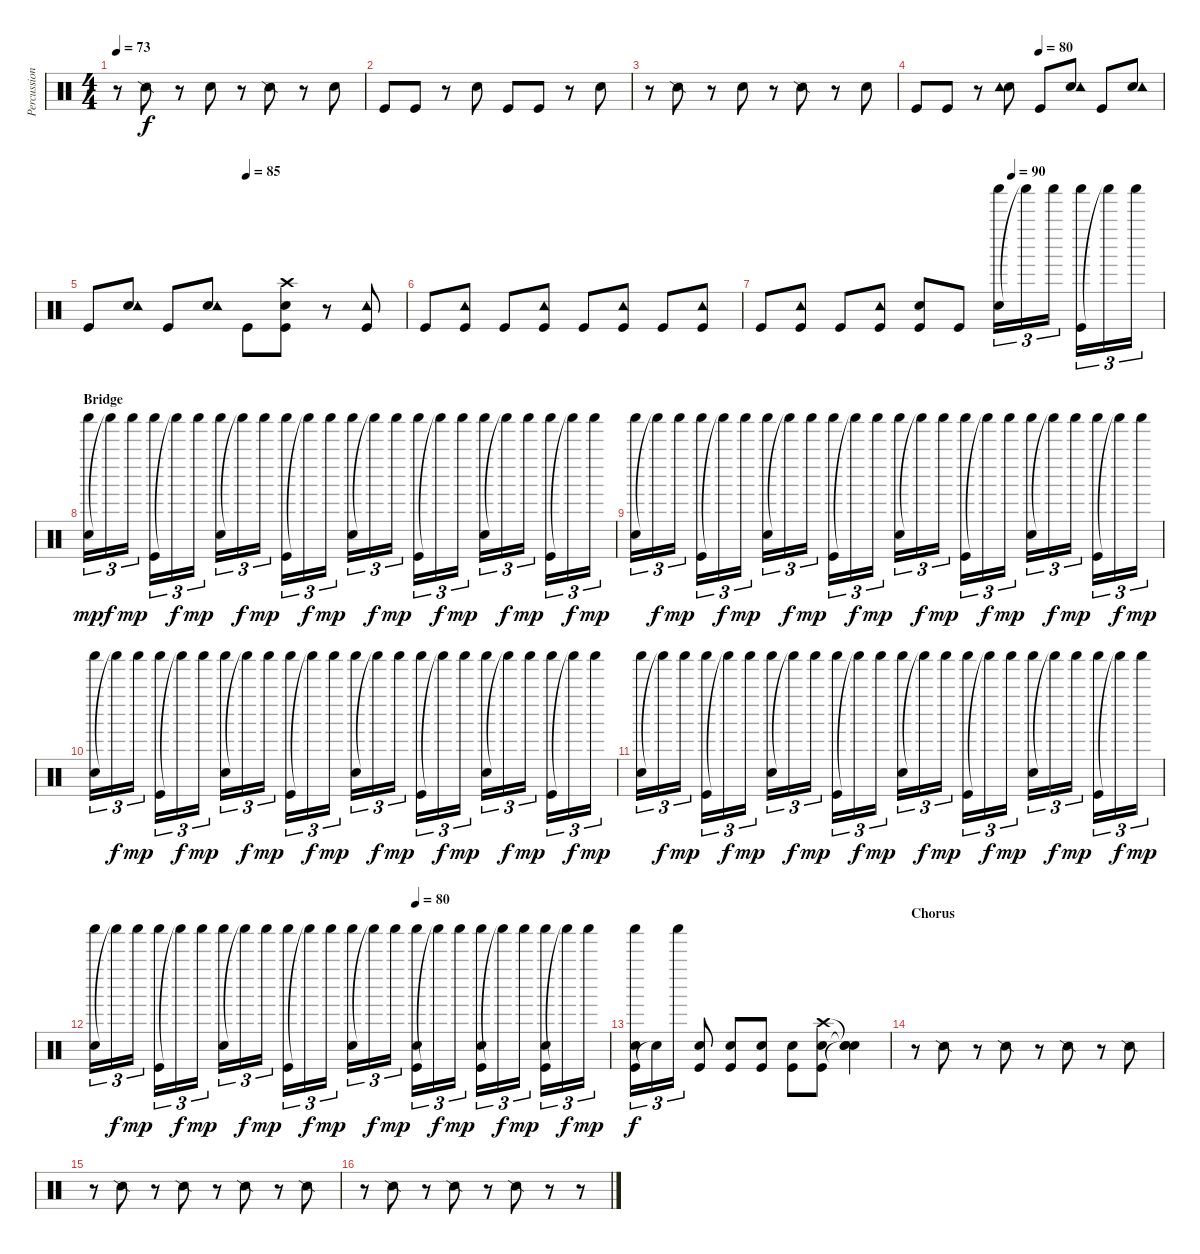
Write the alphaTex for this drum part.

\track ("Percussion" "Percussion") {instrument percussion}
\staff {score}
\articulation defaults
\ts (4 4)
\tempo 73
\clef neutral
\ks c
r.8{dy f} "Snare (side stick) 2".8 r.8 "Snare (hit) 2".8 r.8 "Snare (side stick) 2".8 r.8 "Snare (hit) 2".8 |
"Kick (hit)".8 "Kick (hit)".8 r.8 "Snare (hit) 2".8 "Kick (hit)".8 "Kick (hit)".8 r.8 "Snare (hit) 2".8 |
r.8 "Snare (side stick) 2".8 r.8 "Snare (hit) 2".8 r.8 "Snare (side stick) 2".8 r.8 "Snare (hit) 2".8 |
\tempo (80 0.5)
"Kick (hit)".8 "Kick (hit)".8 r.8 ("Snare (hit) 2" "Tambourine (hit)").8 "Kick (hit)".8 ("Snare (hit) 2" "Tambourine (hit)").8 "Kick (hit)".8 ("Snare (hit) 2" "Tambourine (hit)").8 |
\tempo (85 0.5)
"Kick (hit)".8 ("Snare (hit) 2" "Tambourine (hit)").8 "Kick (hit)".8 ("Snare (hit) 2" "Tambourine (hit)").8 "Kick (hit)".8 ("Kick (hit)" "Snare (hit) 2" "Crash high (hit)").8 r.8 ("Kick (hit)" "Tambourine (hit)").8 |
"Kick (hit)".8 ("Kick (hit)" "Tambourine (hit)").8 "Kick (hit)".8 ("Kick (hit)" "Tambourine (hit)").8 "Kick (hit)".8 ("Kick (hit)" "Tambourine (hit)").8 "Kick (hit)".8 ("Kick (hit)" "Tambourine (hit)").8 |
\tempo (90 0.625)
"Kick (hit)".8 ("Kick (hit)" "Tambourine (hit)").8 "Kick (hit)".8 ("Kick (hit)" "Tambourine (hit)").8 ("Kick (hit)" "Snare (hit) 2").8 "Kick (hit)".8 ("Snare (hit) 2" "Shaker (hit)").16{tu (3 2)} "Shaker (hit)"{t}.16{tu (3 2)} "Shaker (hit)".16{tu (3 2)} ("Kick (hit)" "Shaker (hit)").16{tu (3 2)} "Shaker (hit)"{t}.16{tu (3 2)} "Shaker (hit)".16{tu (3 2)} |
\section ("" "Bridge")
("Snare (hit) 2" "Shaker (hit)").16{tu (3 2) dy mp} "Shaker (hit)"{t}.16{tu (3 2) dy f} "Shaker (hit)".16{tu (3 2) dy mp} ("Kick (hit)" "Shaker (hit)").16{tu (3 2)} "Shaker (hit)"{t}.16{tu (3 2) dy f} "Shaker (hit)".16{tu (3 2) dy mp} ("Snare (hit) 2" "Shaker (hit)").16{tu (3 2)} "Shaker (hit)"{t}.16{tu (3 2) dy f} "Shaker (hit)".16{tu (3 2) dy mp} ("Kick (hit)" "Shaker (hit)").16{tu (3 2)} "Shaker (hit)"{t}.16{tu (3 2) dy f} "Shaker (hit)".16{tu (3 2) dy mp} ("Snare (hit) 2" "Shaker (hit)").16{tu (3 2)} "Shaker (hit)"{t}.16{tu (3 2) dy f} "Shaker (hit)".16{tu (3 2) dy mp} ("Kick (hit)" "Shaker (hit)").16{tu (3 2)} "Shaker (hit)"{t}.16{tu (3 2) dy f} "Shaker (hit)".16{tu (3 2) dy mp} ("Snare (hit) 2" "Shaker (hit)").16{tu (3 2)} "Shaker (hit)"{t}.16{tu (3 2) dy f} "Shaker (hit)".16{tu (3 2) dy mp} ("Kick (hit)" "Shaker (hit)").16{tu (3 2)} "Shaker (hit)"{t}.16{tu (3 2) dy f} "Shaker (hit)".16{tu (3 2) dy mp} |
("Snare (hit) 2" "Shaker (hit)").16{tu (3 2)} "Shaker (hit)"{t}.16{tu (3 2) dy f} "Shaker (hit)".16{tu (3 2) dy mp} ("Kick (hit)" "Shaker (hit)").16{tu (3 2)} "Shaker (hit)"{t}.16{tu (3 2) dy f} "Shaker (hit)".16{tu (3 2) dy mp} ("Snare (hit) 2" "Shaker (hit)").16{tu (3 2)} "Shaker (hit)"{t}.16{tu (3 2) dy f} "Shaker (hit)".16{tu (3 2) dy mp} ("Kick (hit)" "Shaker (hit)").16{tu (3 2)} "Shaker (hit)"{t}.16{tu (3 2) dy f} "Shaker (hit)".16{tu (3 2) dy mp} ("Snare (hit) 2" "Shaker (hit)").16{tu (3 2)} "Shaker (hit)"{t}.16{tu (3 2) dy f} "Shaker (hit)".16{tu (3 2) dy mp} ("Kick (hit)" "Shaker (hit)").16{tu (3 2)} "Shaker (hit)"{t}.16{tu (3 2) dy f} "Shaker (hit)".16{tu (3 2) dy mp} ("Snare (hit) 2" "Shaker (hit)").16{tu (3 2)} "Shaker (hit)"{t}.16{tu (3 2) dy f} "Shaker (hit)".16{tu (3 2) dy mp} ("Kick (hit)" "Shaker (hit)").16{tu (3 2)} "Shaker (hit)"{t}.16{tu (3 2) dy f} "Shaker (hit)".16{tu (3 2) dy mp} |
("Snare (hit) 2" "Shaker (hit)").16{tu (3 2)} "Shaker (hit)"{t}.16{tu (3 2) dy f} "Shaker (hit)".16{tu (3 2) dy mp} ("Kick (hit)" "Shaker (hit)").16{tu (3 2)} "Shaker (hit)"{t}.16{tu (3 2) dy f} "Shaker (hit)".16{tu (3 2) dy mp} ("Snare (hit) 2" "Shaker (hit)").16{tu (3 2)} "Shaker (hit)"{t}.16{tu (3 2) dy f} "Shaker (hit)".16{tu (3 2) dy mp} ("Kick (hit)" "Shaker (hit)").16{tu (3 2)} "Shaker (hit)"{t}.16{tu (3 2) dy f} "Shaker (hit)".16{tu (3 2) dy mp} ("Snare (hit) 2" "Shaker (hit)").16{tu (3 2)} "Shaker (hit)"{t}.16{tu (3 2) dy f} "Shaker (hit)".16{tu (3 2) dy mp} ("Kick (hit)" "Shaker (hit)").16{tu (3 2)} "Shaker (hit)"{t}.16{tu (3 2) dy f} "Shaker (hit)".16{tu (3 2) dy mp} ("Snare (hit) 2" "Shaker (hit)").16{tu (3 2)} "Shaker (hit)"{t}.16{tu (3 2) dy f} "Shaker (hit)".16{tu (3 2) dy mp} ("Kick (hit)" "Shaker (hit)").16{tu (3 2)} "Shaker (hit)"{t}.16{tu (3 2) dy f} "Shaker (hit)".16{tu (3 2) dy mp} |
("Snare (hit) 2" "Shaker (hit)").16{tu (3 2)} "Shaker (hit)"{t}.16{tu (3 2) dy f} "Shaker (hit)".16{tu (3 2) dy mp} ("Kick (hit)" "Shaker (hit)").16{tu (3 2)} "Shaker (hit)"{t}.16{tu (3 2) dy f} "Shaker (hit)".16{tu (3 2) dy mp} ("Snare (hit) 2" "Shaker (hit)").16{tu (3 2)} "Shaker (hit)"{t}.16{tu (3 2) dy f} "Shaker (hit)".16{tu (3 2) dy mp} ("Kick (hit)" "Shaker (hit)").16{tu (3 2)} "Shaker (hit)"{t}.16{tu (3 2) dy f} "Shaker (hit)".16{tu (3 2) dy mp} ("Snare (hit) 2" "Shaker (hit)").16{tu (3 2)} "Shaker (hit)"{t}.16{tu (3 2) dy f} "Shaker (hit)".16{tu (3 2) dy mp} ("Kick (hit)" "Shaker (hit)").16{tu (3 2)} "Shaker (hit)"{t}.16{tu (3 2) dy f} "Shaker (hit)".16{tu (3 2) dy mp} ("Snare (hit) 2" "Shaker (hit)").16{tu (3 2)} "Shaker (hit)"{t}.16{tu (3 2) dy f} "Shaker (hit)".16{tu (3 2) dy mp} ("Kick (hit)" "Shaker (hit)").16{tu (3 2)} "Shaker (hit)"{t}.16{tu (3 2) dy f} "Shaker (hit)".16{tu (3 2) dy mp} |
\tempo (80 0.625)
("Snare (hit) 2" "Shaker (hit)").16{tu (3 2)} "Shaker (hit)"{t}.16{tu (3 2) dy f} "Shaker (hit)".16{tu (3 2) dy mp} ("Kick (hit)" "Shaker (hit)").16{tu (3 2)} "Shaker (hit)"{t}.16{tu (3 2) dy f} "Shaker (hit)".16{tu (3 2) dy mp} ("Snare (hit) 2" "Shaker (hit)").16{tu (3 2)} "Shaker (hit)"{t}.16{tu (3 2) dy f} "Shaker (hit)".16{tu (3 2) dy mp} ("Kick (hit)" "Shaker (hit)").16{tu (3 2)} "Shaker (hit)"{t}.16{tu (3 2) dy f} "Shaker (hit)".16{tu (3 2) dy mp} ("Snare (hit) 2" "Shaker (hit)").16{tu (3 2)} "Shaker (hit)"{t}.16{tu (3 2) dy f} "Shaker (hit)".16{tu (3 2) dy mp} ("Kick (hit)" "Snare (hit) 2" "Shaker (hit)").16{tu (3 2)} "Shaker (hit)"{t}.16{tu (3 2) dy f} "Shaker (hit)".16{tu (3 2) dy mp} ("Kick (hit)" "Snare (hit) 2" "Shaker (hit)").16{tu (3 2)} "Shaker (hit)"{t}.16{tu (3 2) dy f} "Shaker (hit)".16{tu (3 2) dy mp} ("Kick (hit)" "Snare (hit) 2" "Shaker (hit)").16{tu (3 2)} "Shaker (hit)"{t}.16{tu (3 2) dy f} "Shaker (hit)".16{tu (3 2) dy mp} |
("Kick (hit)" "Snare (hit) 2" "Shaker (hit)").16{tu (3 2) dy f} "Snare (hit)"{t}.16{tu (3 2)} "Shaker (hit)".16{tu (3 2)} ("Kick (hit)" "Snare (hit) 2").8 ("Kick (hit)" "Snare (hit) 2").8 ("Kick (hit)" "Snare (hit) 2").8 ("Kick (hit)" "Snare (hit) 2").8 ("Kick (hit)" "Snare (hit) 2" "Crash high (hit)").8 ("Snare (hit)"{t} "Snare (hit)"{t} "Snare (hit)"{t}).4 |
\section ("" "Chorus")
r.8 "Snare (side stick) 2".8 r.8 "Snare (side stick) 2".8 r.8 "Snare (side stick) 2".8 r.8 "Snare (side stick) 2".8 |
r.8 "Snare (side stick) 2".8 r.8 "Snare (side stick) 2".8 r.8 "Snare (side stick) 2".8 r.8 "Snare (side stick) 2".8 |
r.8 "Snare (side stick) 2".8 r.8 "Snare (side stick) 2".8 r.8 "Snare (side stick) 2".8 r.8 r.8
